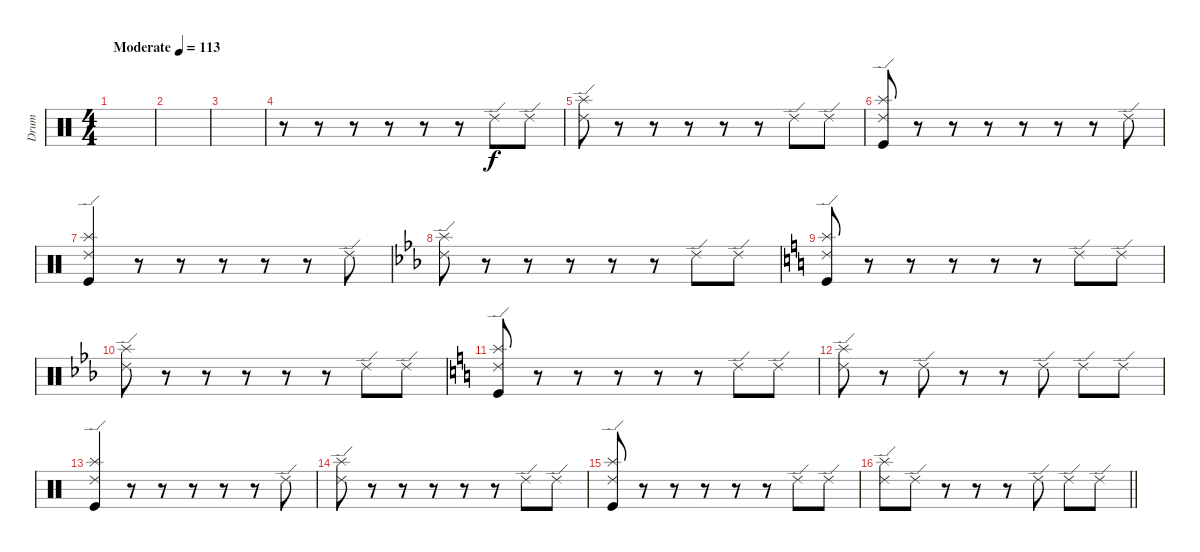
\track ("Drum" "Drum") {instrument percussion}
\staff {score}
\articulation defaults
\ts (4 4)
\tempo (113 "Moderate")
\clef neutral
\ks c
|
|
|
r.8 r.8 r.8 r.8 r.8 r.8 "Ride (edge) 2".8 "Ride (edge) 2".8 |
("Ride (edge) 2" "Splash (hit)").8 r.8 r.8 r.8 r.8 r.8 "Ride (edge) 2".8 "Ride (edge) 2".8 |
("Ride (edge) 2" "Splash (hit)" "Kick (hit)").8 r.8 r.8 r.8 r.8 r.8 r.8 "Ride (edge) 2".8 |
("Ride (edge) 2" "Splash (hit)" "Kick (hit)").4 r.8 r.8 r.8 r.8 r.8 "Ride (edge) 2".8 |
\ks eb
("Ride (edge) 2" "Splash (hit)").8 r.8 r.8 r.8 r.8 r.8 "Ride (edge) 2".8 "Ride (edge) 2".8 |
\ks c
("Ride (edge) 2" "Splash (hit)" "Kick (hit)").8 r.8 r.8 r.8 r.8 r.8 "Ride (edge) 2".8 "Ride (edge) 2".8 |
\ks eb
("Ride (edge) 2" "Splash (hit)").8 r.8 r.8 r.8 r.8 r.8 "Ride (edge) 2".8 "Ride (edge) 2".8 |
\ks c
("Ride (edge) 2" "Splash (hit)" "Kick (hit)").8 r.8 r.8 r.8 r.8 r.8 "Ride (edge) 2".8 "Ride (edge) 2".8 |
("Ride (edge) 2" "Splash (hit)").8 r.8 "Ride (edge) 2".8 r.8 r.8 "Ride (edge) 2".8 "Ride (edge) 2".8 "Ride (edge) 2".8 |
("Ride (edge) 2" "Splash (hit)" "Kick (hit)").4 r.8 r.8 r.8 r.8 r.8 "Ride (edge) 2".8 |
("Ride (edge) 2" "Splash (hit)").8 r.8 r.8 r.8 r.8 r.8 "Ride (edge) 2".8 "Ride (edge) 2".8 |
("Ride (edge) 2" "Splash (hit)" "Kick (hit)").8 r.8 r.8 r.8 r.8 r.8 "Ride (edge) 2".8 "Ride (edge) 2".8 |
\barLineRight lightlight
("Ride (edge) 2" "Splash (hit)").8 "Ride (edge) 2".8 r.8 r.8 r.8 "Ride (edge) 2".8 "Ride (edge) 2".8 "Ride (edge) 2".8
